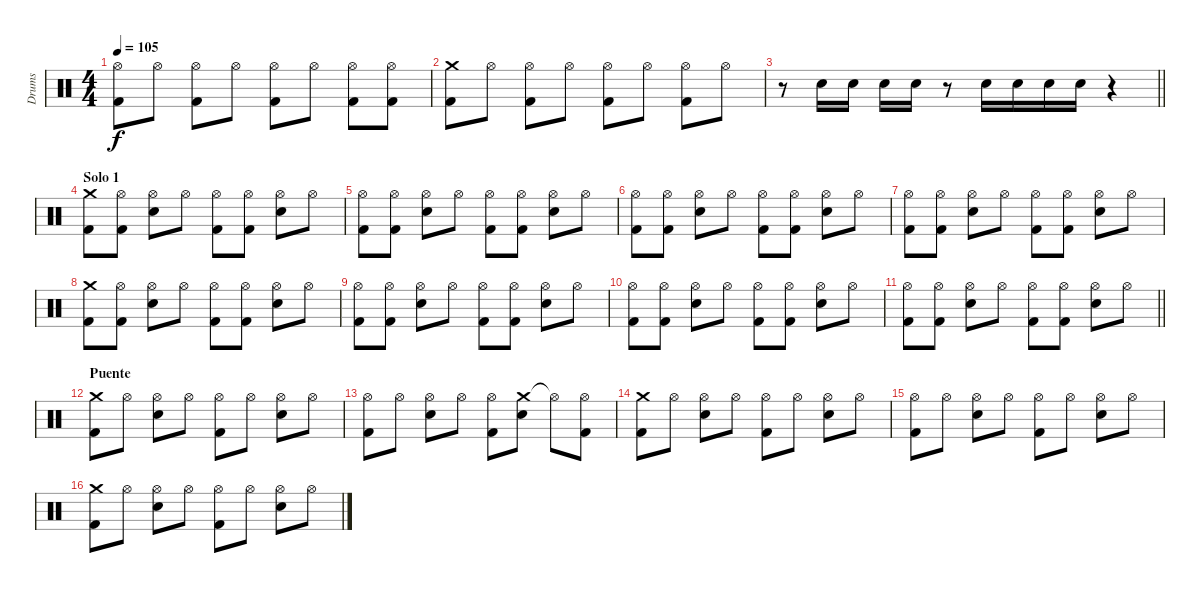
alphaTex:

\track ("Drums" "Drums") {instrument percussion}
\staff {score}
\articulation defaults
\ts (4 4)
\tempo 105
\clef neutral
\ks c
("Hi-Hat (open)" "Kick (hit) 2").8{dy f} "Hi-Hat (open)".8 ("Hi-Hat (open)" "Kick (hit) 2").8 "Hi-Hat (open)".8 ("Hi-Hat (open)" "Kick (hit) 2").8 "Hi-Hat (open)".8 ("Hi-Hat (open)" "Kick (hit) 2").8 ("Hi-Hat (open)" "Kick (hit) 2").8 |
("Crash medium (hit)" "Kick (hit) 2").8 "Hi-Hat (open)".8 ("Hi-Hat (open)" "Kick (hit) 2").8 "Hi-Hat (open)".8 ("Hi-Hat (open)" "Kick (hit) 2").8 "Hi-Hat (open)".8 ("Hi-Hat (open)" "Kick (hit) 2").8 "Hi-Hat (open)".8 |
\barLineRight lightlight
r.8 "Snare (hit) 2".16 "Snare (hit) 2".16 "Snare (hit) 2".16 "Snare (hit) 2".16 r.8 "Snare (hit) 2".16 "Snare (hit) 2".16 "Snare (hit) 2".16 "Snare (hit) 2".16 r.4 |
\section ("" "Solo 1")
("Crash medium (hit)" "Kick (hit) 2").8 ("Hi-Hat (open)" "Kick (hit) 2").8 ("Hi-Hat (open)" "Snare (hit) 2").8 "Hi-Hat (open)".8 ("Hi-Hat (open)" "Kick (hit) 2").8 ("Hi-Hat (open)" "Kick (hit) 2").8 ("Hi-Hat (open)" "Snare (hit) 2").8 "Hi-Hat (open)".8 |
("Hi-Hat (open)" "Kick (hit) 2").8 ("Hi-Hat (open)" "Kick (hit) 2").8 ("Hi-Hat (open)" "Snare (hit) 2").8 "Hi-Hat (open)".8 ("Hi-Hat (open)" "Kick (hit) 2").8 ("Hi-Hat (open)" "Kick (hit) 2").8 ("Hi-Hat (open)" "Snare (hit) 2").8 "Hi-Hat (open)".8 |
("Hi-Hat (open)" "Kick (hit) 2").8 ("Hi-Hat (open)" "Kick (hit) 2").8 ("Hi-Hat (open)" "Snare (hit) 2").8 "Hi-Hat (open)".8 ("Hi-Hat (open)" "Kick (hit) 2").8 ("Hi-Hat (open)" "Kick (hit) 2").8 ("Hi-Hat (open)" "Snare (hit) 2").8 "Hi-Hat (open)".8 |
("Hi-Hat (open)" "Kick (hit) 2").8 ("Hi-Hat (open)" "Kick (hit) 2").8 ("Hi-Hat (open)" "Snare (hit) 2").8 "Hi-Hat (open)".8 ("Hi-Hat (open)" "Kick (hit) 2").8 ("Hi-Hat (open)" "Kick (hit) 2").8 ("Hi-Hat (open)" "Snare (hit) 2").8 "Hi-Hat (open)".8 |
("Crash medium (hit)" "Kick (hit) 2").8 ("Hi-Hat (open)" "Kick (hit) 2").8 ("Hi-Hat (open)" "Snare (hit) 2").8 "Hi-Hat (open)".8 ("Hi-Hat (open)" "Kick (hit) 2").8 ("Hi-Hat (open)" "Kick (hit) 2").8 ("Hi-Hat (open)" "Snare (hit) 2").8 "Hi-Hat (open)".8 |
("Hi-Hat (open)" "Kick (hit) 2").8 ("Hi-Hat (open)" "Kick (hit) 2").8 ("Hi-Hat (open)" "Snare (hit) 2").8 "Hi-Hat (open)".8 ("Hi-Hat (open)" "Kick (hit) 2").8 ("Hi-Hat (open)" "Kick (hit) 2").8 ("Hi-Hat (open)" "Snare (hit) 2").8 "Hi-Hat (open)".8 |
("Hi-Hat (open)" "Kick (hit) 2").8 ("Hi-Hat (open)" "Kick (hit) 2").8 ("Hi-Hat (open)" "Snare (hit) 2").8 "Hi-Hat (open)".8 ("Hi-Hat (open)" "Kick (hit) 2").8 ("Hi-Hat (open)" "Kick (hit) 2").8 ("Hi-Hat (open)" "Snare (hit) 2").8 "Hi-Hat (open)".8 |
\barLineRight lightlight
("Hi-Hat (open)" "Kick (hit) 2").8 ("Hi-Hat (open)" "Kick (hit) 2").8 ("Hi-Hat (open)" "Snare (hit) 2").8 "Hi-Hat (open)".8 ("Hi-Hat (open)" "Kick (hit) 2").8 ("Hi-Hat (open)" "Kick (hit) 2").8 ("Hi-Hat (open)" "Snare (hit) 2").8 "Hi-Hat (open)".8 |
\section ("" "Puente")
("Crash medium (hit)" "Kick (hit) 2").8 "Hi-Hat (open)".8 ("Hi-Hat (open)" "Snare (hit) 2").8 "Hi-Hat (open)".8 ("Hi-Hat (open)" "Kick (hit) 2").8 "Hi-Hat (open)".8 ("Hi-Hat (open)" "Snare (hit) 2").8 "Hi-Hat (open)".8 |
("Hi-Hat (open)" "Kick (hit) 2").8 "Hi-Hat (open)".8 ("Hi-Hat (open)" "Snare (hit) 2").8 "Hi-Hat (open)".8 ("Hi-Hat (open)" "Kick (hit) 2").8 ("Crash medium (hit)" "Snare (hit) 2").8 "Hi-Hat (open)"{t}.8 ("Hi-Hat (open)" "Kick (hit) 2").8 |
("Crash medium (hit)" "Kick (hit) 2").8 "Hi-Hat (open)".8 ("Hi-Hat (open)" "Snare (hit) 2").8 "Hi-Hat (open)".8 ("Hi-Hat (open)" "Kick (hit) 2").8 "Hi-Hat (open)".8 ("Hi-Hat (open)" "Snare (hit) 2").8 "Hi-Hat (open)".8 |
("Hi-Hat (open)" "Kick (hit) 2").8 "Hi-Hat (open)".8 ("Hi-Hat (open)" "Snare (hit) 2").8 "Hi-Hat (open)".8 ("Hi-Hat (open)" "Kick (hit) 2").8 "Hi-Hat (open)".8 ("Hi-Hat (open)" "Snare (hit) 2").8 "Hi-Hat (open)".8 |
("Crash medium (hit)" "Kick (hit) 2").8 "Hi-Hat (open)".8 ("Hi-Hat (open)" "Snare (hit) 2").8 "Hi-Hat (open)".8 ("Hi-Hat (open)" "Kick (hit) 2").8 "Hi-Hat (open)".8 ("Hi-Hat (open)" "Snare (hit) 2").8 "Hi-Hat (open)".8
